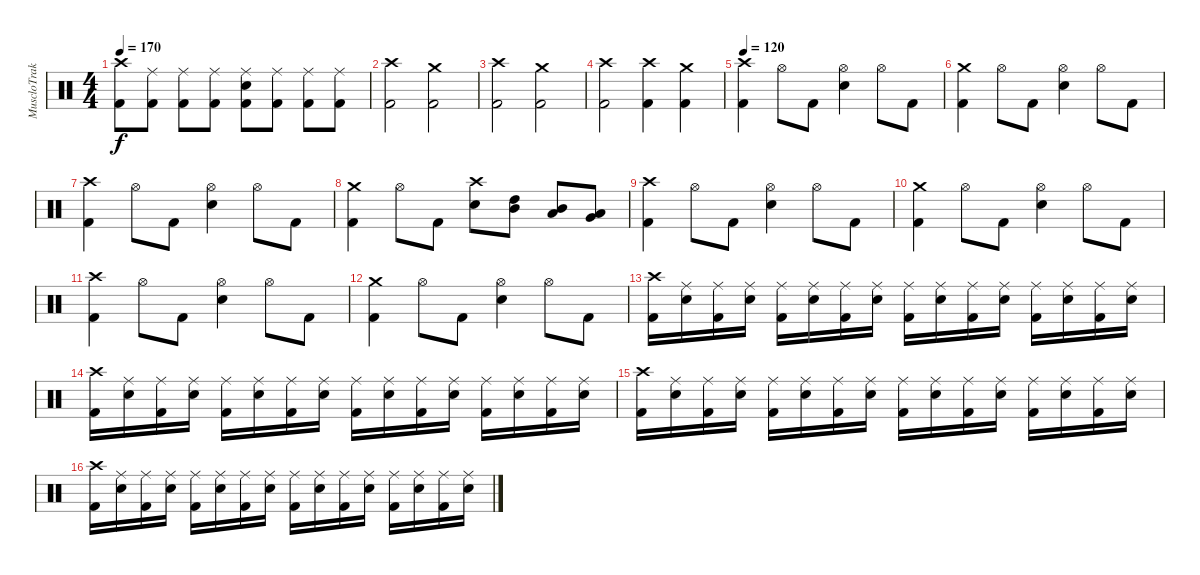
\track ("MuscloTraktor" "MuscloTrak") {instrument percussion}
\staff {score}
\articulation defaults
\ts (4 4)
\tempo 170
\clef neutral
\ks c
("Kick (hit) 2" "Crash high (hit)").8{dy f} ("Kick (hit) 2" "Ride (middle)").8 ("Kick (hit) 2" "Ride (middle)").8 ("Kick (hit) 2" "Ride (middle)").8 ("Kick (hit) 2" "Electric Snare (hit)" "Ride (middle)").8 ("Kick (hit) 2" "Ride (middle)").8 ("Kick (hit) 2" "Ride (middle)").8 ("Kick (hit) 2" "Ride (middle)").8 |
("Kick (hit) 2" "Crash high (hit)").2 ("Kick (hit) 2" "Crash medium (hit)").2 |
("Kick (hit) 2" "Crash high (hit)").2 ("Kick (hit) 2" "Crash medium (hit)").2 |
("Kick (hit) 2" "Crash high (hit)").2 ("Kick (hit) 2" "Crash high (hit)").4 ("Kick (hit) 2" "Crash medium (hit)").4 |
\tempo 120
("Kick (hit) 2" "Crash high (hit)").4 "Hi-Hat (open)".8 "Kick (hit) 2".8 ("Electric Snare (hit)" "Hi-Hat (open)").4 "Hi-Hat (open)".8 "Kick (hit) 2".8 |
("Kick (hit) 2" "Crash medium (hit)").4 "Hi-Hat (open)".8 "Kick (hit) 2".8 ("Electric Snare (hit)" "Hi-Hat (open)").4 "Hi-Hat (open)".8 "Kick (hit) 2".8 |
("Kick (hit) 2" "Crash high (hit)").4 "Hi-Hat (open)".8 "Kick (hit) 2".8 ("Electric Snare (hit)" "Hi-Hat (open)").4 "Hi-Hat (open)".8 "Kick (hit) 2".8 |
("Kick (hit) 2" "Crash medium (hit)").4 "Hi-Hat (open)".8 "Kick (hit) 2".8 ("Electric Snare (hit)" "Crash high (hit)").8 ("Mid Tom (hit)" "High Tom (hit)").8 ("Low Tom (hit)" "Mid Tom (hit)").8 ("Very Low Tom (hit)" "Low Tom (hit)").8 |
("Kick (hit) 2" "Crash high (hit)").4 "Hi-Hat (open)".8 "Kick (hit) 2".8 ("Electric Snare (hit)" "Hi-Hat (open)").4 "Hi-Hat (open)".8 "Kick (hit) 2".8 |
("Kick (hit) 2" "Crash medium (hit)").4 "Hi-Hat (open)".8 "Kick (hit) 2".8 ("Electric Snare (hit)" "Hi-Hat (open)").4 "Hi-Hat (open)".8 "Kick (hit) 2".8 |
("Kick (hit) 2" "Crash high (hit)").4 "Hi-Hat (open)".8 "Kick (hit) 2".8 ("Electric Snare (hit)" "Hi-Hat (open)").4 "Hi-Hat (open)".8 "Kick (hit) 2".8 |
("Kick (hit) 2" "Crash medium (hit)").4 "Hi-Hat (open)".8 "Kick (hit) 2".8 ("Electric Snare (hit)" "Hi-Hat (open)").4 "Hi-Hat (open)".8 "Kick (hit) 2".8 |
("Kick (hit) 2" "Crash high (hit)").16 ("Electric Snare (hit)" "Ride (middle)").16 ("Kick (hit) 2" "Ride (middle)").16 ("Electric Snare (hit)" "Ride (middle)").16 ("Kick (hit) 2" "Ride (middle)").16 ("Electric Snare (hit)" "Ride (middle)").16 ("Kick (hit) 2" "Ride (middle)").16 ("Electric Snare (hit)" "Ride (middle)").16 ("Kick (hit) 2" "Ride (middle)").16 ("Electric Snare (hit)" "Ride (middle)").16 ("Kick (hit) 2" "Ride (middle)").16 ("Electric Snare (hit)" "Ride (middle)").16 ("Kick (hit) 2" "Ride (middle)").16 ("Electric Snare (hit)" "Ride (middle)").16 ("Kick (hit) 2" "Ride (middle)").16 ("Electric Snare (hit)" "Ride (middle)").16 |
("Kick (hit) 2" "Crash high (hit)").16 ("Electric Snare (hit)" "Ride (middle)").16 ("Kick (hit) 2" "Ride (middle)").16 ("Electric Snare (hit)" "Ride (middle)").16 ("Kick (hit) 2" "Ride (middle)").16 ("Electric Snare (hit)" "Ride (middle)").16 ("Kick (hit) 2" "Ride (middle)").16 ("Electric Snare (hit)" "Ride (middle)").16 ("Kick (hit) 2" "Ride (middle)").16 ("Electric Snare (hit)" "Ride (middle)").16 ("Kick (hit) 2" "Ride (middle)").16 ("Electric Snare (hit)" "Ride (middle)").16 ("Kick (hit) 2" "Ride (middle)").16 ("Electric Snare (hit)" "Ride (middle)").16 ("Kick (hit) 2" "Ride (middle)").16 ("Electric Snare (hit)" "Ride (middle)").16 |
("Kick (hit) 2" "Crash high (hit)").16 ("Electric Snare (hit)" "Ride (middle)").16 ("Kick (hit) 2" "Ride (middle)").16 ("Electric Snare (hit)" "Ride (middle)").16 ("Kick (hit) 2" "Ride (middle)").16 ("Electric Snare (hit)" "Ride (middle)").16 ("Kick (hit) 2" "Ride (middle)").16 ("Electric Snare (hit)" "Ride (middle)").16 ("Kick (hit) 2" "Ride (middle)").16 ("Electric Snare (hit)" "Ride (middle)").16 ("Kick (hit) 2" "Ride (middle)").16 ("Electric Snare (hit)" "Ride (middle)").16 ("Kick (hit) 2" "Ride (middle)").16 ("Electric Snare (hit)" "Ride (middle)").16 ("Kick (hit) 2" "Ride (middle)").16 ("Electric Snare (hit)" "Ride (middle)").16 |
("Kick (hit) 2" "Crash high (hit)").16 ("Electric Snare (hit)" "Ride (middle)").16 ("Kick (hit) 2" "Ride (middle)").16 ("Electric Snare (hit)" "Ride (middle)").16 ("Kick (hit) 2" "Ride (middle)").16 ("Electric Snare (hit)" "Ride (middle)").16 ("Kick (hit) 2" "Ride (middle)").16 ("Electric Snare (hit)" "Ride (middle)").16 ("Kick (hit) 2" "Ride (middle)").16 ("Electric Snare (hit)" "Ride (middle)").16 ("Kick (hit) 2" "Ride (middle)").16 ("Electric Snare (hit)" "Ride (middle)").16 ("Kick (hit) 2" "Ride (middle)").16 ("Electric Snare (hit)" "Ride (middle)").16 ("Kick (hit) 2" "Ride (middle)").16 ("Electric Snare (hit)" "Ride (middle)").16
